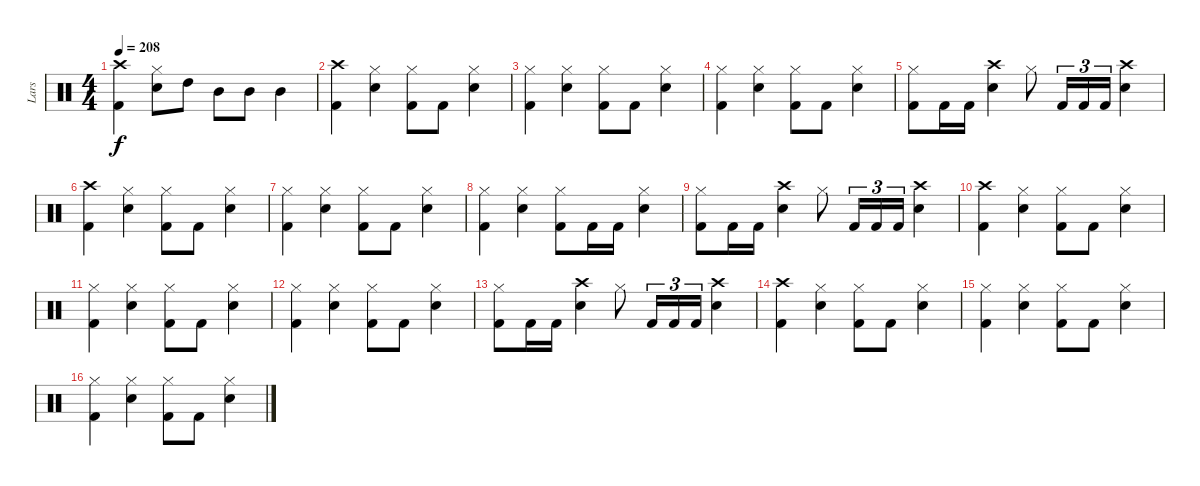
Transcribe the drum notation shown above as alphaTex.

\track ("Lars" "Lars") {instrument percussion}
\staff {score}
\articulation defaults
\ts (4 4)
\tempo 208
\clef neutral
\ks c
("Crash high (hit)" "Kick (hit) 2").4{dy f} ("Hi-Hat (closed)" "Snare (hit) 2").8 "High Tom (hit)".8 "Mid Tom (hit)".8 "Mid Tom (hit)".8 "Mid Tom (hit)".4 |
("Crash high (hit)" "Kick (hit) 2").4 ("Hi-Hat (closed)" "Snare (hit) 2").4 ("Hi-Hat (closed)" "Kick (hit) 2").8 "Kick (hit) 2".8 ("Hi-Hat (closed)" "Snare (hit) 2").4 |
("Hi-Hat (closed)" "Kick (hit) 2").4 ("Hi-Hat (closed)" "Snare (hit) 2").4 ("Hi-Hat (closed)" "Kick (hit) 2").8 "Kick (hit) 2".8 ("Hi-Hat (closed)" "Snare (hit) 2").4 |
("Hi-Hat (closed)" "Kick (hit) 2").4 ("Hi-Hat (closed)" "Snare (hit) 2").4 ("Hi-Hat (closed)" "Kick (hit) 2").8 "Kick (hit) 2".8 ("Hi-Hat (closed)" "Snare (hit) 2").4 |
("Hi-Hat (closed)" "Kick (hit) 2").8 "Kick (hit) 2".16 "Kick (hit) 2".16 ("Crash high (hit)" "Snare (hit) 2").4 "Hi-Hat (closed)".8 "Kick (hit) 2".16{tu (3 2)} "Kick (hit) 2".16{tu (3 2)} "Kick (hit) 2".16{tu (3 2)} ("Crash high (hit)" "Snare (hit) 2").4 |
("Crash high (hit)" "Kick (hit) 2").4 ("Hi-Hat (closed)" "Snare (hit) 2").4 ("Hi-Hat (closed)" "Kick (hit) 2").8 "Kick (hit) 2".8 ("Hi-Hat (closed)" "Snare (hit) 2").4 |
("Hi-Hat (closed)" "Kick (hit) 2").4 ("Hi-Hat (closed)" "Snare (hit) 2").4 ("Hi-Hat (closed)" "Kick (hit) 2").8 "Kick (hit) 2".8 ("Hi-Hat (closed)" "Snare (hit) 2").4 |
("Hi-Hat (closed)" "Kick (hit) 2").4 ("Hi-Hat (closed)" "Snare (hit) 2").4 ("Hi-Hat (closed)" "Kick (hit) 2").8 "Kick (hit) 2".16 "Kick (hit) 2".16 ("Hi-Hat (closed)" "Snare (hit) 2").4 |
("Hi-Hat (closed)" "Kick (hit) 2").8 "Kick (hit) 2".16 "Kick (hit) 2".16 ("Crash high (hit)" "Snare (hit) 2").4 "Hi-Hat (closed)".8 "Kick (hit) 2".16{tu (3 2)} "Kick (hit) 2".16{tu (3 2)} "Kick (hit) 2".16{tu (3 2)} ("Crash high (hit)" "Snare (hit) 2").4 |
("Crash high (hit)" "Kick (hit) 2").4 ("Hi-Hat (closed)" "Snare (hit) 2").4 ("Hi-Hat (closed)" "Kick (hit) 2").8 "Kick (hit) 2".8 ("Hi-Hat (closed)" "Snare (hit) 2").4 |
("Hi-Hat (closed)" "Kick (hit) 2").4 ("Hi-Hat (closed)" "Snare (hit) 2").4 ("Hi-Hat (closed)" "Kick (hit) 2").8 "Kick (hit) 2".8 ("Hi-Hat (closed)" "Snare (hit) 2").4 |
("Hi-Hat (closed)" "Kick (hit) 2").4 ("Hi-Hat (closed)" "Snare (hit) 2").4 ("Hi-Hat (closed)" "Kick (hit) 2").8 "Kick (hit) 2".8 ("Hi-Hat (closed)" "Snare (hit) 2").4 |
("Hi-Hat (closed)" "Kick (hit) 2").8 "Kick (hit) 2".16 "Kick (hit) 2".16 ("Crash high (hit)" "Snare (hit) 2").4 "Hi-Hat (closed)".8 "Kick (hit) 2".16{tu (3 2)} "Kick (hit) 2".16{tu (3 2)} "Kick (hit) 2".16{tu (3 2)} ("Crash high (hit)" "Snare (hit) 2").4 |
("Crash high (hit)" "Kick (hit) 2").4 ("Hi-Hat (closed)" "Snare (hit) 2").4 ("Hi-Hat (closed)" "Kick (hit) 2").8 "Kick (hit) 2".8 ("Hi-Hat (closed)" "Snare (hit) 2").4 |
("Hi-Hat (closed)" "Kick (hit) 2").4 ("Hi-Hat (closed)" "Snare (hit) 2").4 ("Hi-Hat (closed)" "Kick (hit) 2").8 "Kick (hit) 2".8 ("Hi-Hat (closed)" "Snare (hit) 2").4 |
("Hi-Hat (closed)" "Kick (hit) 2").4 ("Hi-Hat (closed)" "Snare (hit) 2").4 ("Hi-Hat (closed)" "Kick (hit) 2").8 "Kick (hit) 2".8 ("Hi-Hat (closed)" "Snare (hit) 2").4
